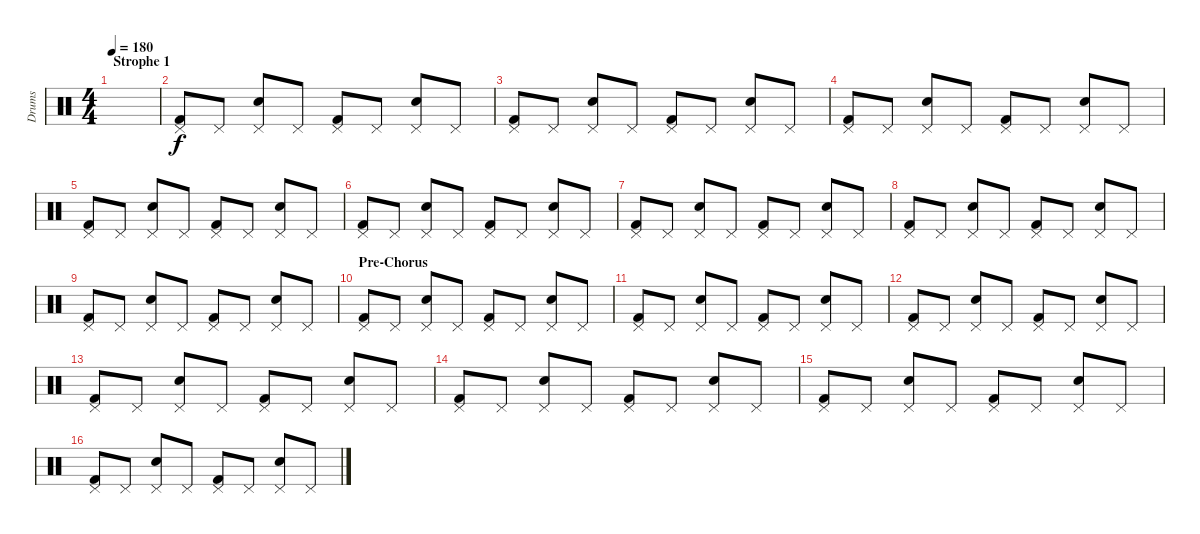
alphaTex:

\track ("Drums" "Drums") {instrument percussion}
\staff {score}
\articulation defaults
\ts (4 4)
\section ("" "Strophe 1")
\tempo 180
\clef neutral
\ks c
|
("Pedal Hi-Hat (hit)" "Kick (hit) 2").8 "Pedal Hi-Hat (hit)".8 ("Pedal Hi-Hat (hit)" "Electric Snare (hit)").8 "Pedal Hi-Hat (hit)".8 ("Pedal Hi-Hat (hit)" "Kick (hit) 2").8 "Pedal Hi-Hat (hit)".8 ("Pedal Hi-Hat (hit)" "Electric Snare (hit)").8 "Pedal Hi-Hat (hit)".8 |
("Pedal Hi-Hat (hit)" "Kick (hit) 2").8 "Pedal Hi-Hat (hit)".8 ("Pedal Hi-Hat (hit)" "Electric Snare (hit)").8 "Pedal Hi-Hat (hit)".8 ("Pedal Hi-Hat (hit)" "Kick (hit) 2").8 "Pedal Hi-Hat (hit)".8 ("Pedal Hi-Hat (hit)" "Electric Snare (hit)").8 "Pedal Hi-Hat (hit)".8 |
("Pedal Hi-Hat (hit)" "Kick (hit) 2").8 "Pedal Hi-Hat (hit)".8 ("Pedal Hi-Hat (hit)" "Electric Snare (hit)").8 "Pedal Hi-Hat (hit)".8 ("Pedal Hi-Hat (hit)" "Kick (hit) 2").8 "Pedal Hi-Hat (hit)".8 ("Pedal Hi-Hat (hit)" "Electric Snare (hit)").8 "Pedal Hi-Hat (hit)".8 |
("Pedal Hi-Hat (hit)" "Kick (hit) 2").8 "Pedal Hi-Hat (hit)".8 ("Pedal Hi-Hat (hit)" "Electric Snare (hit)").8 "Pedal Hi-Hat (hit)".8 ("Pedal Hi-Hat (hit)" "Kick (hit) 2").8 "Pedal Hi-Hat (hit)".8 ("Pedal Hi-Hat (hit)" "Electric Snare (hit)").8 "Pedal Hi-Hat (hit)".8 |
("Pedal Hi-Hat (hit)" "Kick (hit) 2").8 "Pedal Hi-Hat (hit)".8 ("Pedal Hi-Hat (hit)" "Electric Snare (hit)").8 "Pedal Hi-Hat (hit)".8 ("Pedal Hi-Hat (hit)" "Kick (hit) 2").8 "Pedal Hi-Hat (hit)".8 ("Pedal Hi-Hat (hit)" "Electric Snare (hit)").8 "Pedal Hi-Hat (hit)".8 |
("Pedal Hi-Hat (hit)" "Kick (hit) 2").8 "Pedal Hi-Hat (hit)".8 ("Pedal Hi-Hat (hit)" "Electric Snare (hit)").8 "Pedal Hi-Hat (hit)".8 ("Pedal Hi-Hat (hit)" "Kick (hit) 2").8 "Pedal Hi-Hat (hit)".8 ("Pedal Hi-Hat (hit)" "Electric Snare (hit)").8 "Pedal Hi-Hat (hit)".8 |
("Pedal Hi-Hat (hit)" "Kick (hit) 2").8 "Pedal Hi-Hat (hit)".8 ("Pedal Hi-Hat (hit)" "Electric Snare (hit)").8 "Pedal Hi-Hat (hit)".8 ("Pedal Hi-Hat (hit)" "Kick (hit) 2").8 "Pedal Hi-Hat (hit)".8 ("Pedal Hi-Hat (hit)" "Electric Snare (hit)").8 "Pedal Hi-Hat (hit)".8 |
("Pedal Hi-Hat (hit)" "Kick (hit) 2").8 "Pedal Hi-Hat (hit)".8 ("Pedal Hi-Hat (hit)" "Electric Snare (hit)").8 "Pedal Hi-Hat (hit)".8 ("Pedal Hi-Hat (hit)" "Kick (hit) 2").8 "Pedal Hi-Hat (hit)".8 ("Pedal Hi-Hat (hit)" "Electric Snare (hit)").8 "Pedal Hi-Hat (hit)".8 |
\section ("" "Pre-Chorus")
("Pedal Hi-Hat (hit)" "Kick (hit) 2").8 "Pedal Hi-Hat (hit)".8 ("Pedal Hi-Hat (hit)" "Electric Snare (hit)").8 "Pedal Hi-Hat (hit)".8 ("Pedal Hi-Hat (hit)" "Kick (hit) 2").8 "Pedal Hi-Hat (hit)".8 ("Pedal Hi-Hat (hit)" "Electric Snare (hit)").8 "Pedal Hi-Hat (hit)".8 |
("Pedal Hi-Hat (hit)" "Kick (hit) 2").8 "Pedal Hi-Hat (hit)".8 ("Pedal Hi-Hat (hit)" "Electric Snare (hit)").8 "Pedal Hi-Hat (hit)".8 ("Pedal Hi-Hat (hit)" "Kick (hit) 2").8 "Pedal Hi-Hat (hit)".8 ("Pedal Hi-Hat (hit)" "Electric Snare (hit)").8 "Pedal Hi-Hat (hit)".8 |
("Pedal Hi-Hat (hit)" "Kick (hit) 2").8 "Pedal Hi-Hat (hit)".8 ("Pedal Hi-Hat (hit)" "Electric Snare (hit)").8 "Pedal Hi-Hat (hit)".8 ("Pedal Hi-Hat (hit)" "Kick (hit) 2").8 "Pedal Hi-Hat (hit)".8 ("Pedal Hi-Hat (hit)" "Electric Snare (hit)").8 "Pedal Hi-Hat (hit)".8 |
("Pedal Hi-Hat (hit)" "Kick (hit) 2").8 "Pedal Hi-Hat (hit)".8 ("Pedal Hi-Hat (hit)" "Electric Snare (hit)").8 "Pedal Hi-Hat (hit)".8 ("Pedal Hi-Hat (hit)" "Kick (hit) 2").8 "Pedal Hi-Hat (hit)".8 ("Pedal Hi-Hat (hit)" "Electric Snare (hit)").8 "Pedal Hi-Hat (hit)".8 |
("Pedal Hi-Hat (hit)" "Kick (hit) 2").8 "Pedal Hi-Hat (hit)".8 ("Pedal Hi-Hat (hit)" "Electric Snare (hit)").8 "Pedal Hi-Hat (hit)".8 ("Pedal Hi-Hat (hit)" "Kick (hit) 2").8 "Pedal Hi-Hat (hit)".8 ("Pedal Hi-Hat (hit)" "Electric Snare (hit)").8 "Pedal Hi-Hat (hit)".8 |
("Pedal Hi-Hat (hit)" "Kick (hit) 2").8 "Pedal Hi-Hat (hit)".8 ("Pedal Hi-Hat (hit)" "Electric Snare (hit)").8 "Pedal Hi-Hat (hit)".8 ("Pedal Hi-Hat (hit)" "Kick (hit) 2").8 "Pedal Hi-Hat (hit)".8 ("Pedal Hi-Hat (hit)" "Electric Snare (hit)").8 "Pedal Hi-Hat (hit)".8 |
("Pedal Hi-Hat (hit)" "Kick (hit) 2").8 "Pedal Hi-Hat (hit)".8 ("Pedal Hi-Hat (hit)" "Electric Snare (hit)").8 "Pedal Hi-Hat (hit)".8 ("Pedal Hi-Hat (hit)" "Kick (hit) 2").8 "Pedal Hi-Hat (hit)".8 ("Pedal Hi-Hat (hit)" "Electric Snare (hit)").8 "Pedal Hi-Hat (hit)".8
